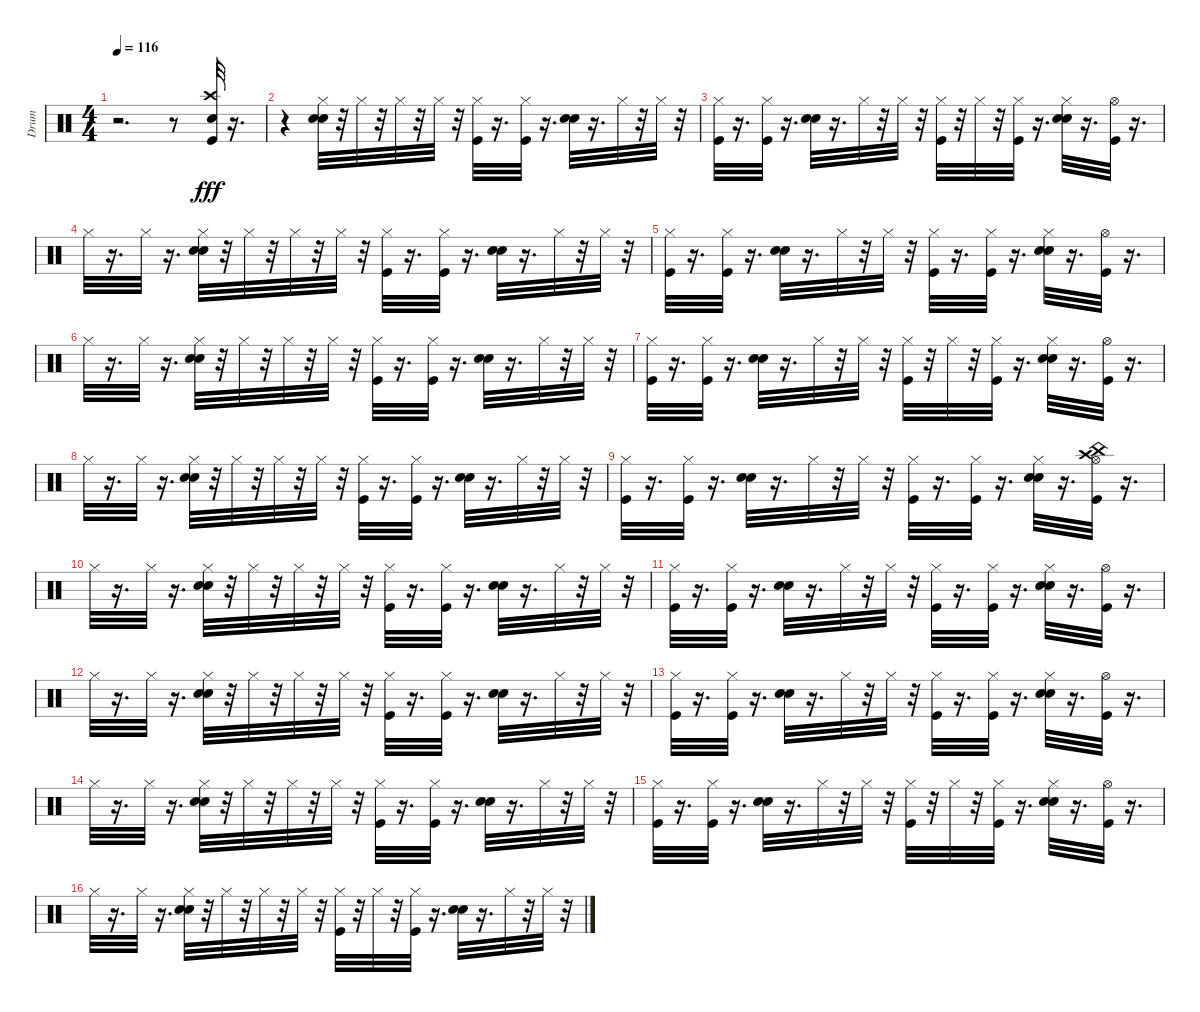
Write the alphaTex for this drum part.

\track ("Drum" "Drum") {instrument percussion}
\staff {score}
\articulation defaults
\ts (4 4)
\tempo 116
\clef neutral
\ks c
r.2{d dy fff} r.8 ("Snare (hit) 2" "Crash high (hit)" "Kick (hit)").32 r.16{d} |
r.4 ("Snare (hit) 2" "Electric Snare (hit)" "Hi-Hat (closed)").32 r.32 "Hi-Hat (closed)".32 r.32 "Hi-Hat (closed)".32 r.32 "Hi-Hat (closed)".32 r.32 ("Hi-Hat (closed)" "Kick (hit)").32 r.16{d} ("Kick (hit)" "Hi-Hat (closed)").32 r.16{d} ("Snare (hit) 2" "Electric Snare (hit)").32 r.16{d} "Hi-Hat (closed)".32 r.32 "Hi-Hat (closed)".32 r.32 |
("Hi-Hat (closed)" "Kick (hit)").32 r.16{d} ("Hi-Hat (closed)" "Kick (hit)").32 r.16{d} ("Snare (hit) 2" "Electric Snare (hit)").32 r.16{d} "Hi-Hat (closed)".32 r.32 "Hi-Hat (closed)".32 r.32 ("Hi-Hat (closed)" "Kick (hit)").32 r.32 "Hi-Hat (closed)".32 r.32 ("Kick (hit)" "Hi-Hat (closed)").32 r.16{d} ("Snare (hit) 2" "Electric Snare (hit)" "Hi-Hat (closed)").32 r.16{d} ("Kick (hit)" "Hi-Hat (open)").32 r.16{d} |
"Hi-Hat (closed)".32 r.16{d} "Hi-Hat (closed)".32 r.16{d} ("Snare (hit) 2" "Electric Snare (hit)" "Hi-Hat (closed)").32 r.32 "Hi-Hat (closed)".32 r.32 "Hi-Hat (closed)".32 r.32 "Hi-Hat (closed)".32 r.32 ("Hi-Hat (closed)" "Kick (hit)").32 r.16{d} ("Hi-Hat (closed)" "Kick (hit)").32 r.16{d} ("Snare (hit) 2" "Electric Snare (hit)").32 r.16{d} "Hi-Hat (closed)".32 r.32 "Hi-Hat (closed)".32 r.32 |
("Hi-Hat (closed)" "Kick (hit)").32 r.16{d} ("Hi-Hat (closed)" "Kick (hit)").32 r.16{d} ("Snare (hit) 2" "Electric Snare (hit)").32 r.16{d} "Hi-Hat (closed)".32 r.32 "Hi-Hat (closed)".32 r.32 ("Hi-Hat (closed)" "Kick (hit)").32 r.16{d} ("Hi-Hat (closed)" "Kick (hit)").32 r.16{d} ("Hi-Hat (closed)" "Snare (hit) 2" "Electric Snare (hit)").32 r.16{d} ("Hi-Hat (open)" "Kick (hit)").32 r.16{d} |
"Hi-Hat (closed)".32 r.16{d} "Hi-Hat (closed)".32 r.16{d} ("Snare (hit) 2" "Electric Snare (hit)" "Hi-Hat (closed)").32 r.32 "Hi-Hat (closed)".32 r.32 "Hi-Hat (closed)".32 r.32 "Hi-Hat (closed)".32 r.32 ("Hi-Hat (closed)" "Kick (hit)").32 r.16{d} ("Hi-Hat (closed)" "Kick (hit)").32 r.16{d} ("Snare (hit) 2" "Electric Snare (hit)").32 r.16{d} "Hi-Hat (closed)".32 r.32 "Hi-Hat (closed)".32 r.32 |
("Hi-Hat (closed)" "Kick (hit)").32 r.16{d} ("Hi-Hat (closed)" "Kick (hit)").32 r.16{d} ("Snare (hit) 2" "Electric Snare (hit)").32 r.16{d} "Hi-Hat (closed)".32 r.32 "Hi-Hat (closed)".32 r.32 ("Hi-Hat (closed)" "Kick (hit)").32 r.32 "Hi-Hat (closed)".32 r.32 ("Kick (hit)" "Hi-Hat (closed)").32 r.16{d} ("Snare (hit) 2" "Electric Snare (hit)" "Hi-Hat (closed)").32 r.16{d} ("Kick (hit)" "Hi-Hat (open)").32 r.16{d} |
"Hi-Hat (closed)".32 r.16{d} "Hi-Hat (closed)".32 r.16{d} ("Snare (hit) 2" "Electric Snare (hit)" "Hi-Hat (closed)").32 r.32 "Hi-Hat (closed)".32 r.32 "Hi-Hat (closed)".32 r.32 "Hi-Hat (closed)".32 r.32 ("Hi-Hat (closed)" "Kick (hit)").32 r.16{d} ("Hi-Hat (closed)" "Kick (hit)").32 r.16{d} ("Snare (hit) 2" "Electric Snare (hit)").32 r.16{d} "Hi-Hat (closed)".32 r.32 "Hi-Hat (closed)".32 r.32 |
("Hi-Hat (closed)" "Kick (hit)").32 r.16{d} ("Hi-Hat (closed)" "Kick (hit)").32 r.16{d} ("Snare (hit) 2" "Electric Snare (hit)").32 r.16{d} "Hi-Hat (closed)".32 r.32 "Hi-Hat (closed)".32 r.32 ("Hi-Hat (closed)" "Kick (hit)").32 r.16{d} ("Kick (hit)" "Hi-Hat (closed)").32 r.16{d} ("Snare (hit) 2" "Electric Snare (hit)" "Hi-Hat (closed)").32 r.16{d} ("Hi-Hat (open)" "Crash high (hit)" "China (hit)" "Kick (hit)").32 r.16{d} |
"Hi-Hat (closed)".32 r.16{d} "Hi-Hat (closed)".32 r.16{d} ("Snare (hit) 2" "Electric Snare (hit)" "Hi-Hat (closed)").32 r.32 "Hi-Hat (closed)".32 r.32 "Hi-Hat (closed)".32 r.32 "Hi-Hat (closed)".32 r.32 ("Hi-Hat (closed)" "Kick (hit)").32 r.16{d} ("Kick (hit)" "Hi-Hat (closed)").32 r.16{d} ("Snare (hit) 2" "Electric Snare (hit)").32 r.16{d} "Hi-Hat (closed)".32 r.32 "Hi-Hat (closed)".32 r.32 |
("Hi-Hat (closed)" "Kick (hit)").32 r.16{d} ("Hi-Hat (closed)" "Kick (hit)").32 r.16{d} ("Snare (hit) 2" "Electric Snare (hit)").32 r.16{d} "Hi-Hat (closed)".32 r.32 "Hi-Hat (closed)".32 r.32 ("Hi-Hat (closed)" "Kick (hit)").32 r.16{d} ("Hi-Hat (closed)" "Kick (hit)").32 r.16{d} ("Snare (hit) 2" "Electric Snare (hit)" "Hi-Hat (closed)").32 r.16{d} ("Hi-Hat (open)" "Kick (hit)").32 r.16{d} |
"Hi-Hat (closed)".32 r.16{d} "Hi-Hat (closed)".32 r.16{d} ("Snare (hit) 2" "Electric Snare (hit)" "Hi-Hat (closed)").32 r.32 "Hi-Hat (closed)".32 r.32 "Hi-Hat (closed)".32 r.32 "Hi-Hat (closed)".32 r.32 ("Kick (hit)" "Hi-Hat (closed)").32 r.16{d} ("Kick (hit)" "Hi-Hat (closed)").32 r.16{d} ("Snare (hit) 2" "Electric Snare (hit)").32 r.16{d} "Hi-Hat (closed)".32 r.32 "Hi-Hat (closed)".32 r.32 |
("Hi-Hat (closed)" "Kick (hit)").32 r.16{d} ("Hi-Hat (closed)" "Kick (hit)").32 r.16{d} ("Snare (hit) 2" "Electric Snare (hit)").32 r.16{d} "Hi-Hat (closed)".32 r.32 "Hi-Hat (closed)".32 r.32 ("Hi-Hat (closed)" "Kick (hit)").32 r.16{d} ("Hi-Hat (closed)" "Kick (hit)").32 r.16{d} ("Hi-Hat (closed)" "Snare (hit) 2" "Electric Snare (hit)").32 r.16{d} ("Hi-Hat (open)" "Kick (hit)").32 r.16{d} |
"Hi-Hat (closed)".32 r.16{d} "Hi-Hat (closed)".32 r.16{d} ("Snare (hit) 2" "Electric Snare (hit)" "Hi-Hat (closed)").32 r.32 "Hi-Hat (closed)".32 r.32 "Hi-Hat (closed)".32 r.32 "Hi-Hat (closed)".32 r.32 ("Hi-Hat (closed)" "Kick (hit)").32 r.16{d} ("Hi-Hat (closed)" "Kick (hit)").32 r.16{d} ("Snare (hit) 2" "Electric Snare (hit)").32 r.16{d} "Hi-Hat (closed)".32 r.32 "Hi-Hat (closed)".32 r.32 |
("Hi-Hat (closed)" "Kick (hit)").32 r.16{d} ("Hi-Hat (closed)" "Kick (hit)").32 r.16{d} ("Snare (hit) 2" "Electric Snare (hit)").32 r.16{d} "Hi-Hat (closed)".32 r.32 "Hi-Hat (closed)".32 r.32 ("Hi-Hat (closed)" "Kick (hit)").32 r.32 "Hi-Hat (closed)".32 r.32 ("Hi-Hat (closed)" "Kick (hit)").32 r.16{d} ("Hi-Hat (closed)" "Snare (hit) 2" "Electric Snare (hit)").32 r.16{d} ("Hi-Hat (open)" "Kick (hit)").32 r.16{d} |
"Hi-Hat (closed)".32 r.16{d} "Hi-Hat (closed)".32 r.16{d} ("Snare (hit) 2" "Electric Snare (hit)" "Hi-Hat (closed)").32 r.32 "Hi-Hat (closed)".32 r.32 "Hi-Hat (closed)".32 r.32 "Hi-Hat (closed)".32 r.32 ("Hi-Hat (closed)" "Kick (hit)").32 r.32 "Hi-Hat (closed)".32 r.32 ("Hi-Hat (closed)" "Kick (hit)").32 r.16{d} ("Snare (hit) 2" "Electric Snare (hit)").32 r.16{d} "Hi-Hat (closed)".32 r.32 "Hi-Hat (closed)".32 r.32
